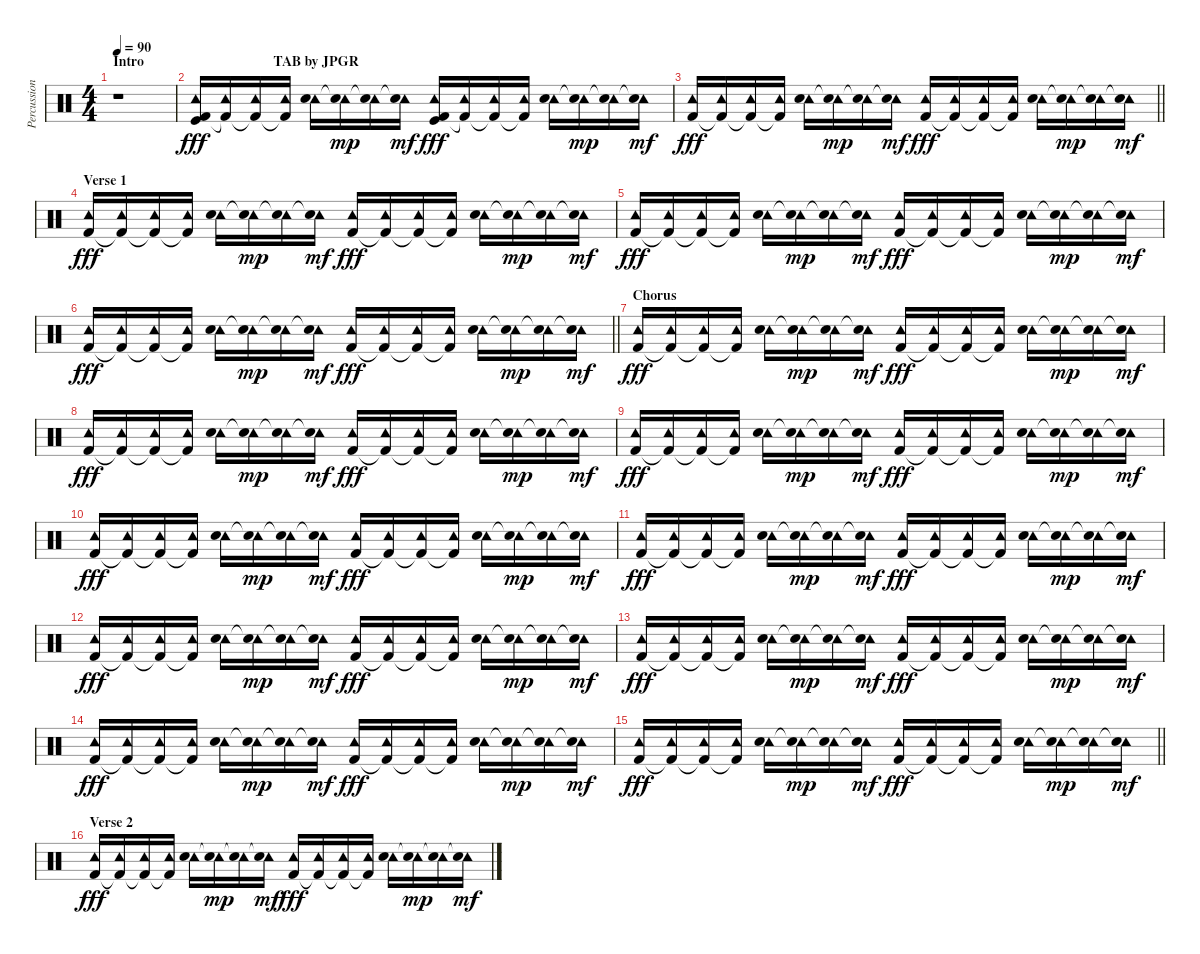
\track ("Percussion" "Percussion") {instrument percussion}
\staff {score}
\articulation defaults
\ts (4 4)
\section ("" "Intro                                     TAB by JPGR")
\tempo 90
\clef neutral
\ks c
r.1{dy fff} |
("Tambourine (hit)" "Kick (hit)" "Kick (hit) 2").16 ("Tambourine (hit)" "Kick (hit) 2"{t}).16 ("Tambourine (hit)" "Kick (hit) 2"{t}).16 ("Tambourine (hit)" "Kick (hit) 2"{t}).16 ("Tambourine (hit)" "Hand Clap (hit)").16 ("Tambourine (hit)" "Snare (hit)"{t}).16{dy mp} ("Tambourine (hit)" "Snare (hit)"{t}).16 ("Tambourine (hit)" "Snare (hit)"{t}).16{dy mf} ("Tambourine (hit)" "Kick (hit)" "Kick (hit) 2").16{dy fff} ("Tambourine (hit)" "Kick (hit) 2"{t}).16 ("Tambourine (hit)" "Kick (hit) 2"{t}).16 ("Tambourine (hit)" "Kick (hit) 2"{t}).16 ("Tambourine (hit)" "Hand Clap (hit)").16 ("Tambourine (hit)" "Snare (hit)"{t}).16{dy mp} ("Tambourine (hit)" "Snare (hit)"{t}).16 ("Tambourine (hit)" "Snare (hit)"{t}).16{dy mf} |
\barLineRight lightlight
("Tambourine (hit)" "Kick (hit) 2").16{dy fff} ("Tambourine (hit)" "Kick (hit) 2"{t}).16 ("Tambourine (hit)" "Kick (hit) 2"{t}).16 ("Tambourine (hit)" "Kick (hit) 2"{t}).16 ("Tambourine (hit)" "Hand Clap (hit)").16 ("Tambourine (hit)" "Snare (hit)"{t}).16{dy mp} ("Tambourine (hit)" "Snare (hit)"{t}).16 ("Tambourine (hit)" "Snare (hit)"{t}).16{dy mf} ("Tambourine (hit)" "Kick (hit) 2").16{dy fff} ("Tambourine (hit)" "Kick (hit) 2"{t}).16 ("Tambourine (hit)" "Kick (hit) 2"{t}).16 ("Tambourine (hit)" "Kick (hit) 2"{t}).16 ("Tambourine (hit)" "Hand Clap (hit)").16 ("Tambourine (hit)" "Snare (hit)"{t}).16{dy mp} ("Tambourine (hit)" "Snare (hit)"{t}).16 ("Tambourine (hit)" "Snare (hit)"{t}).16{dy mf} |
\section ("" "Verse 1")
("Tambourine (hit)" "Kick (hit) 2").16{dy fff} ("Tambourine (hit)" "Kick (hit) 2"{t}).16 ("Tambourine (hit)" "Kick (hit) 2"{t}).16 ("Tambourine (hit)" "Kick (hit) 2"{t}).16 ("Tambourine (hit)" "Hand Clap (hit)").16 ("Tambourine (hit)" "Snare (hit)"{t}).16{dy mp} ("Tambourine (hit)" "Snare (hit)"{t}).16 ("Tambourine (hit)" "Snare (hit)"{t}).16{dy mf} ("Tambourine (hit)" "Kick (hit) 2").16{dy fff} ("Tambourine (hit)" "Kick (hit) 2"{t}).16 ("Tambourine (hit)" "Kick (hit) 2"{t}).16 ("Tambourine (hit)" "Kick (hit) 2"{t}).16 ("Tambourine (hit)" "Hand Clap (hit)").16 ("Tambourine (hit)" "Snare (hit)"{t}).16{dy mp} ("Tambourine (hit)" "Snare (hit)"{t}).16 ("Tambourine (hit)" "Snare (hit)"{t}).16{dy mf} |
("Tambourine (hit)" "Kick (hit) 2").16{dy fff} ("Tambourine (hit)" "Kick (hit) 2"{t}).16 ("Tambourine (hit)" "Kick (hit) 2"{t}).16 ("Tambourine (hit)" "Kick (hit) 2"{t}).16 ("Tambourine (hit)" "Hand Clap (hit)").16 ("Tambourine (hit)" "Snare (hit)"{t}).16{dy mp} ("Tambourine (hit)" "Snare (hit)"{t}).16 ("Tambourine (hit)" "Snare (hit)"{t}).16{dy mf} ("Tambourine (hit)" "Kick (hit) 2").16{dy fff} ("Tambourine (hit)" "Kick (hit) 2"{t}).16 ("Tambourine (hit)" "Kick (hit) 2"{t}).16 ("Tambourine (hit)" "Kick (hit) 2"{t}).16 ("Tambourine (hit)" "Hand Clap (hit)").16 ("Tambourine (hit)" "Snare (hit)"{t}).16{dy mp} ("Tambourine (hit)" "Snare (hit)"{t}).16 ("Tambourine (hit)" "Snare (hit)"{t}).16{dy mf} |
\barLineRight lightlight
("Tambourine (hit)" "Kick (hit) 2").16{dy fff} ("Tambourine (hit)" "Kick (hit) 2"{t}).16 ("Tambourine (hit)" "Kick (hit) 2"{t}).16 ("Tambourine (hit)" "Kick (hit) 2"{t}).16 ("Tambourine (hit)" "Hand Clap (hit)").16 ("Tambourine (hit)" "Snare (hit)"{t}).16{dy mp} ("Tambourine (hit)" "Snare (hit)"{t}).16 ("Tambourine (hit)" "Snare (hit)"{t}).16{dy mf} ("Tambourine (hit)" "Kick (hit) 2").16{dy fff} ("Tambourine (hit)" "Kick (hit) 2"{t}).16 ("Tambourine (hit)" "Kick (hit) 2"{t}).16 ("Tambourine (hit)" "Kick (hit) 2"{t}).16 ("Tambourine (hit)" "Hand Clap (hit)").16 ("Tambourine (hit)" "Snare (hit)"{t}).16{dy mp} ("Tambourine (hit)" "Snare (hit)"{t}).16 ("Tambourine (hit)" "Snare (hit)"{t}).16{dy mf} |
\section ("" "Chorus")
("Tambourine (hit)" "Kick (hit) 2").16{dy fff} ("Tambourine (hit)" "Kick (hit) 2"{t}).16 ("Tambourine (hit)" "Kick (hit) 2"{t}).16 ("Tambourine (hit)" "Kick (hit) 2"{t}).16 ("Tambourine (hit)" "Hand Clap (hit)").16 ("Tambourine (hit)" "Snare (hit)"{t}).16{dy mp} ("Tambourine (hit)" "Snare (hit)"{t}).16 ("Tambourine (hit)" "Snare (hit)"{t}).16{dy mf} ("Tambourine (hit)" "Kick (hit) 2").16{dy fff} ("Tambourine (hit)" "Kick (hit) 2"{t}).16 ("Tambourine (hit)" "Kick (hit) 2"{t}).16 ("Tambourine (hit)" "Kick (hit) 2"{t}).16 ("Tambourine (hit)" "Hand Clap (hit)").16 ("Tambourine (hit)" "Snare (hit)"{t}).16{dy mp} ("Tambourine (hit)" "Snare (hit)"{t}).16 ("Tambourine (hit)" "Snare (hit)"{t}).16{dy mf} |
("Tambourine (hit)" "Kick (hit) 2").16{dy fff} ("Tambourine (hit)" "Kick (hit) 2"{t}).16 ("Tambourine (hit)" "Kick (hit) 2"{t}).16 ("Tambourine (hit)" "Kick (hit) 2"{t}).16 ("Tambourine (hit)" "Hand Clap (hit)").16 ("Tambourine (hit)" "Snare (hit)"{t}).16{dy mp} ("Tambourine (hit)" "Snare (hit)"{t}).16 ("Tambourine (hit)" "Snare (hit)"{t}).16{dy mf} ("Tambourine (hit)" "Kick (hit) 2").16{dy fff} ("Tambourine (hit)" "Kick (hit) 2"{t}).16 ("Tambourine (hit)" "Kick (hit) 2"{t}).16 ("Tambourine (hit)" "Kick (hit) 2"{t}).16 ("Tambourine (hit)" "Hand Clap (hit)").16 ("Tambourine (hit)" "Snare (hit)"{t}).16{dy mp} ("Tambourine (hit)" "Snare (hit)"{t}).16 ("Tambourine (hit)" "Snare (hit)"{t}).16{dy mf} |
("Tambourine (hit)" "Kick (hit) 2").16{dy fff} ("Tambourine (hit)" "Kick (hit) 2"{t}).16 ("Tambourine (hit)" "Kick (hit) 2"{t}).16 ("Tambourine (hit)" "Kick (hit) 2"{t}).16 ("Tambourine (hit)" "Hand Clap (hit)").16 ("Tambourine (hit)" "Snare (hit)"{t}).16{dy mp} ("Tambourine (hit)" "Snare (hit)"{t}).16 ("Tambourine (hit)" "Snare (hit)"{t}).16{dy mf} ("Tambourine (hit)" "Kick (hit) 2").16{dy fff} ("Tambourine (hit)" "Kick (hit) 2"{t}).16 ("Tambourine (hit)" "Kick (hit) 2"{t}).16 ("Tambourine (hit)" "Kick (hit) 2"{t}).16 ("Tambourine (hit)" "Hand Clap (hit)").16 ("Tambourine (hit)" "Snare (hit)"{t}).16{dy mp} ("Tambourine (hit)" "Snare (hit)"{t}).16 ("Tambourine (hit)" "Snare (hit)"{t}).16{dy mf} |
("Tambourine (hit)" "Kick (hit) 2").16{dy fff} ("Tambourine (hit)" "Kick (hit) 2"{t}).16 ("Tambourine (hit)" "Kick (hit) 2"{t}).16 ("Tambourine (hit)" "Kick (hit) 2"{t}).16 ("Tambourine (hit)" "Hand Clap (hit)").16 ("Tambourine (hit)" "Snare (hit)"{t}).16{dy mp} ("Tambourine (hit)" "Snare (hit)"{t}).16 ("Tambourine (hit)" "Snare (hit)"{t}).16{dy mf} ("Tambourine (hit)" "Kick (hit) 2").16{dy fff} ("Tambourine (hit)" "Kick (hit) 2"{t}).16 ("Tambourine (hit)" "Kick (hit) 2"{t}).16 ("Tambourine (hit)" "Kick (hit) 2"{t}).16 ("Tambourine (hit)" "Hand Clap (hit)").16 ("Tambourine (hit)" "Snare (hit)"{t}).16{dy mp} ("Tambourine (hit)" "Snare (hit)"{t}).16 ("Tambourine (hit)" "Snare (hit)"{t}).16{dy mf} |
("Tambourine (hit)" "Kick (hit) 2").16{dy fff} ("Tambourine (hit)" "Kick (hit) 2"{t}).16 ("Tambourine (hit)" "Kick (hit) 2"{t}).16 ("Tambourine (hit)" "Kick (hit) 2"{t}).16 ("Tambourine (hit)" "Hand Clap (hit)").16 ("Tambourine (hit)" "Snare (hit)"{t}).16{dy mp} ("Tambourine (hit)" "Snare (hit)"{t}).16 ("Tambourine (hit)" "Snare (hit)"{t}).16{dy mf} ("Tambourine (hit)" "Kick (hit) 2").16{dy fff} ("Tambourine (hit)" "Kick (hit) 2"{t}).16 ("Tambourine (hit)" "Kick (hit) 2"{t}).16 ("Tambourine (hit)" "Kick (hit) 2"{t}).16 ("Tambourine (hit)" "Hand Clap (hit)").16 ("Tambourine (hit)" "Snare (hit)"{t}).16{dy mp} ("Tambourine (hit)" "Snare (hit)"{t}).16 ("Tambourine (hit)" "Snare (hit)"{t}).16{dy mf} |
("Tambourine (hit)" "Kick (hit) 2").16{dy fff} ("Tambourine (hit)" "Kick (hit) 2"{t}).16 ("Tambourine (hit)" "Kick (hit) 2"{t}).16 ("Tambourine (hit)" "Kick (hit) 2"{t}).16 ("Tambourine (hit)" "Hand Clap (hit)").16 ("Tambourine (hit)" "Snare (hit)"{t}).16{dy mp} ("Tambourine (hit)" "Snare (hit)"{t}).16 ("Tambourine (hit)" "Snare (hit)"{t}).16{dy mf} ("Tambourine (hit)" "Kick (hit) 2").16{dy fff} ("Tambourine (hit)" "Kick (hit) 2"{t}).16 ("Tambourine (hit)" "Kick (hit) 2"{t}).16 ("Tambourine (hit)" "Kick (hit) 2"{t}).16 ("Tambourine (hit)" "Hand Clap (hit)").16 ("Tambourine (hit)" "Snare (hit)"{t}).16{dy mp} ("Tambourine (hit)" "Snare (hit)"{t}).16 ("Tambourine (hit)" "Snare (hit)"{t}).16{dy mf} |
("Tambourine (hit)" "Kick (hit) 2").16{dy fff} ("Tambourine (hit)" "Kick (hit) 2"{t}).16 ("Tambourine (hit)" "Kick (hit) 2"{t}).16 ("Tambourine (hit)" "Kick (hit) 2"{t}).16 ("Tambourine (hit)" "Hand Clap (hit)").16 ("Tambourine (hit)" "Snare (hit)"{t}).16{dy mp} ("Tambourine (hit)" "Snare (hit)"{t}).16 ("Tambourine (hit)" "Snare (hit)"{t}).16{dy mf} ("Tambourine (hit)" "Kick (hit) 2").16{dy fff} ("Tambourine (hit)" "Kick (hit) 2"{t}).16 ("Tambourine (hit)" "Kick (hit) 2"{t}).16 ("Tambourine (hit)" "Kick (hit) 2"{t}).16 ("Tambourine (hit)" "Hand Clap (hit)").16 ("Tambourine (hit)" "Snare (hit)"{t}).16{dy mp} ("Tambourine (hit)" "Snare (hit)"{t}).16 ("Tambourine (hit)" "Snare (hit)"{t}).16{dy mf} |
("Tambourine (hit)" "Kick (hit) 2").16{dy fff} ("Tambourine (hit)" "Kick (hit) 2"{t}).16 ("Tambourine (hit)" "Kick (hit) 2"{t}).16 ("Tambourine (hit)" "Kick (hit) 2"{t}).16 ("Tambourine (hit)" "Hand Clap (hit)").16 ("Tambourine (hit)" "Snare (hit)"{t}).16{dy mp} ("Tambourine (hit)" "Snare (hit)"{t}).16 ("Tambourine (hit)" "Snare (hit)"{t}).16{dy mf} ("Tambourine (hit)" "Kick (hit) 2").16{dy fff} ("Tambourine (hit)" "Kick (hit) 2"{t}).16 ("Tambourine (hit)" "Kick (hit) 2"{t}).16 ("Tambourine (hit)" "Kick (hit) 2"{t}).16 ("Tambourine (hit)" "Hand Clap (hit)").16 ("Tambourine (hit)" "Snare (hit)"{t}).16{dy mp} ("Tambourine (hit)" "Snare (hit)"{t}).16 ("Tambourine (hit)" "Snare (hit)"{t}).16{dy mf} |
\barLineRight lightlight
("Tambourine (hit)" "Kick (hit) 2").16{dy fff} ("Tambourine (hit)" "Kick (hit) 2"{t}).16 ("Tambourine (hit)" "Kick (hit) 2"{t}).16 ("Tambourine (hit)" "Kick (hit) 2"{t}).16 ("Tambourine (hit)" "Hand Clap (hit)").16 ("Tambourine (hit)" "Snare (hit)"{t}).16{dy mp} ("Tambourine (hit)" "Snare (hit)"{t}).16 ("Tambourine (hit)" "Snare (hit)"{t}).16{dy mf} ("Tambourine (hit)" "Kick (hit) 2").16{dy fff} ("Tambourine (hit)" "Kick (hit) 2"{t}).16 ("Tambourine (hit)" "Kick (hit) 2"{t}).16 ("Tambourine (hit)" "Kick (hit) 2"{t}).16 ("Tambourine (hit)" "Hand Clap (hit)").16 ("Tambourine (hit)" "Snare (hit)"{t}).16{dy mp} ("Tambourine (hit)" "Snare (hit)"{t}).16 ("Tambourine (hit)" "Snare (hit)"{t}).16{dy mf} |
\section ("" "Verse 2")
("Tambourine (hit)" "Kick (hit) 2").16{dy fff} ("Tambourine (hit)" "Kick (hit) 2"{t}).16 ("Tambourine (hit)" "Kick (hit) 2"{t}).16 ("Tambourine (hit)" "Kick (hit) 2"{t}).16 ("Tambourine (hit)" "Hand Clap (hit)").16 ("Tambourine (hit)" "Snare (hit)"{t}).16{dy mp} ("Tambourine (hit)" "Snare (hit)"{t}).16 ("Tambourine (hit)" "Snare (hit)"{t}).16{dy mf} ("Tambourine (hit)" "Kick (hit) 2").16{dy fff} ("Tambourine (hit)" "Kick (hit) 2"{t}).16 ("Tambourine (hit)" "Kick (hit) 2"{t}).16 ("Tambourine (hit)" "Kick (hit) 2"{t}).16 ("Tambourine (hit)" "Hand Clap (hit)").16 ("Tambourine (hit)" "Snare (hit)"{t}).16{dy mp} ("Tambourine (hit)" "Snare (hit)"{t}).16 ("Tambourine (hit)" "Snare (hit)"{t}).16{dy mf}
